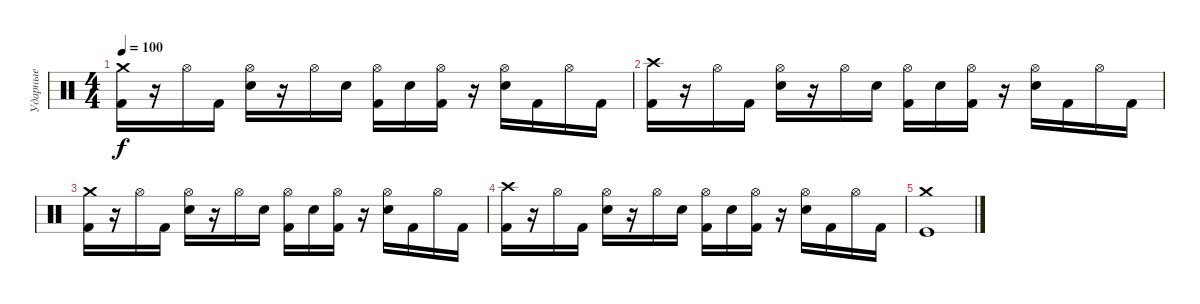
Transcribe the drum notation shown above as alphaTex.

\track ("Ударные" "Ударные") {instrument percussion}
\staff {score}
\articulation defaults
\ts (4 4)
\tempo 100
\clef neutral
\ks c
("Crash medium (hit)" "Kick (hit) 2").16{dy f} r.16 "Hi-Hat (open)".16 "Kick (hit) 2".16 ("Hi-Hat (open)" "Snare (hit) 2").16 r.16 "Hi-Hat (open)".16 "Snare (hit) 2".16 ("Hi-Hat (open)" "Kick (hit) 2").16 "Snare (hit) 2".16 ("Hi-Hat (open)" "Kick (hit) 2").16 r.16 ("Hi-Hat (open)" "Snare (hit) 2").16 "Kick (hit) 2".16 "Hi-Hat (open)".16 "Kick (hit) 2".16 |
("Crash high (hit)" "Kick (hit) 2").16 r.16 "Hi-Hat (open)".16 "Kick (hit) 2".16 ("Hi-Hat (open)" "Snare (hit) 2").16 r.16 "Hi-Hat (open)".16 "Snare (hit) 2".16 ("Hi-Hat (open)" "Kick (hit) 2").16 "Snare (hit) 2".16 ("Hi-Hat (open)" "Kick (hit) 2").16 r.16 ("Hi-Hat (open)" "Snare (hit) 2").16 "Kick (hit) 2".16 "Hi-Hat (open)".16 "Kick (hit) 2".16 |
("Crash medium (hit)" "Kick (hit) 2").16 r.16 "Hi-Hat (open)".16 "Kick (hit) 2".16 ("Hi-Hat (open)" "Snare (hit) 2").16 r.16 "Hi-Hat (open)".16 "Snare (hit) 2".16 ("Hi-Hat (open)" "Kick (hit) 2").16 "Snare (hit) 2".16 ("Hi-Hat (open)" "Kick (hit) 2").16 r.16 ("Hi-Hat (open)" "Snare (hit) 2").16 "Kick (hit) 2".16 "Hi-Hat (open)".16 "Kick (hit) 2".16 |
("Crash high (hit)" "Kick (hit) 2").16 r.16 "Hi-Hat (open)".16 "Kick (hit) 2".16 ("Hi-Hat (open)" "Snare (hit) 2").16 r.16 "Hi-Hat (open)".16 "Snare (hit) 2".16 ("Hi-Hat (open)" "Kick (hit) 2").16 "Snare (hit) 2".16 ("Hi-Hat (open)" "Kick (hit) 2").16 r.16 ("Hi-Hat (open)" "Snare (hit) 2").16 "Kick (hit) 2".16 "Hi-Hat (open)".16 "Kick (hit) 2".16 |
("Crash medium (hit)" "Kick (hit)").1
